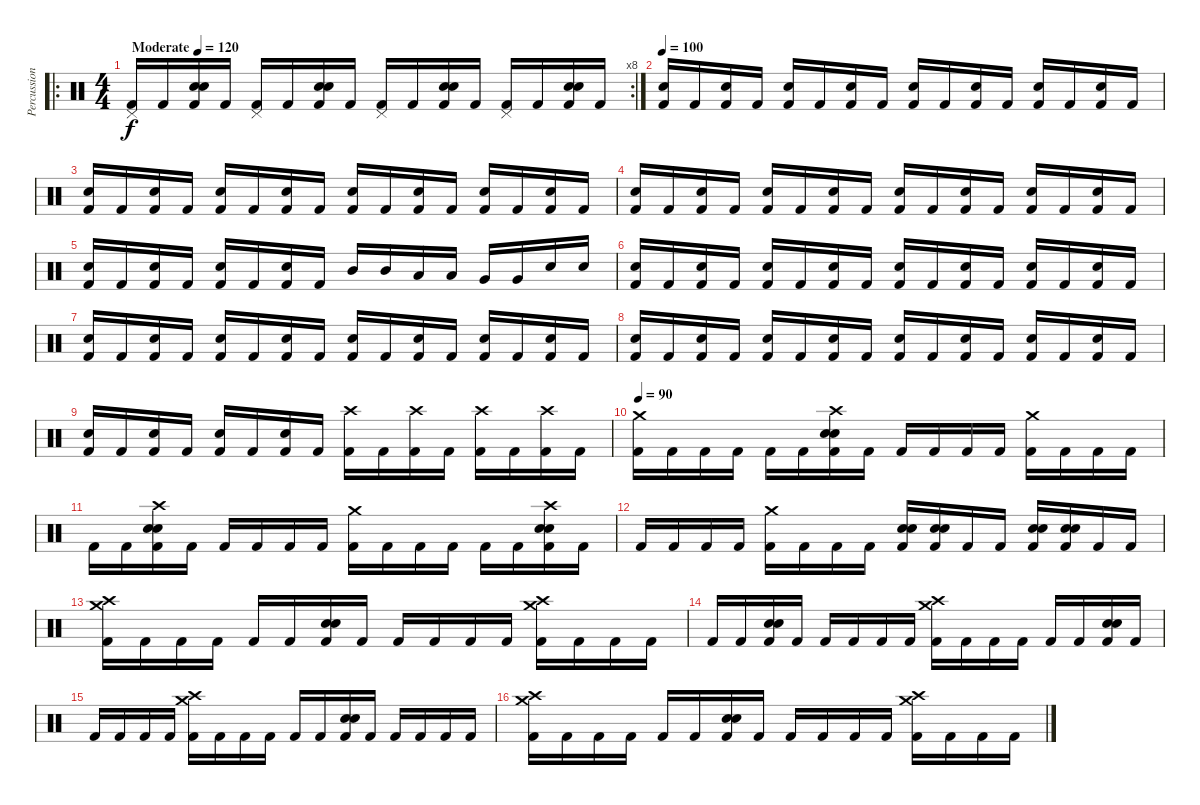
\track ("Percussions" "Percussion") {instrument percussion}
\staff {score}
\articulation defaults
\ro
\rc 8
\ts (4 4)
\tempo (120 "Moderate")
\tempo 90
\tempo (120 "Moderate")
\clef neutral
\ks c
("Pedal Hi-Hat (hit)" "Kick (hit) 2").16{dy f} "Kick (hit) 2".16 ("Electric Snare (hit)" "Snare (hit) 2" "Kick (hit) 2").16 "Kick (hit) 2".16 ("Pedal Hi-Hat (hit)" "Kick (hit) 2").16 "Kick (hit) 2".16 ("Electric Snare (hit)" "Snare (hit) 2" "Kick (hit) 2").16 "Kick (hit) 2".16 ("Pedal Hi-Hat (hit)" "Kick (hit) 2").16 "Kick (hit) 2".16 ("Electric Snare (hit)" "Snare (hit) 2" "Kick (hit) 2").16 "Kick (hit) 2".16 ("Pedal Hi-Hat (hit)" "Kick (hit) 2").16 "Kick (hit) 2".16 ("Electric Snare (hit)" "Snare (hit) 2" "Kick (hit) 2").16 "Kick (hit) 2".16 |
\tempo 100
("Electric Snare (hit)" "Kick (hit) 2").16 "Kick (hit) 2".16 ("Snare (hit) 2" "Kick (hit) 2").16 "Kick (hit) 2".16 ("Electric Snare (hit)" "Kick (hit) 2").16 "Kick (hit) 2".16 ("Snare (hit) 2" "Kick (hit) 2").16 "Kick (hit) 2".16 ("Electric Snare (hit)" "Kick (hit) 2").16 "Kick (hit) 2".16 ("Snare (hit) 2" "Kick (hit) 2").16 "Kick (hit) 2".16 ("Electric Snare (hit)" "Kick (hit) 2").16 "Kick (hit) 2".16 ("Snare (hit) 2" "Kick (hit) 2").16 "Kick (hit) 2".16 |
("Electric Snare (hit)" "Kick (hit) 2").16 "Kick (hit) 2".16 ("Snare (hit) 2" "Kick (hit) 2").16 "Kick (hit) 2".16 ("Electric Snare (hit)" "Kick (hit) 2").16 "Kick (hit) 2".16 ("Snare (hit) 2" "Kick (hit) 2").16 "Kick (hit) 2".16 ("Electric Snare (hit)" "Kick (hit) 2").16 "Kick (hit) 2".16 ("Snare (hit) 2" "Kick (hit) 2").16 "Kick (hit) 2".16 ("Electric Snare (hit)" "Kick (hit) 2").16 "Kick (hit) 2".16 ("Snare (hit) 2" "Kick (hit) 2").16 "Kick (hit) 2".16 |
("Electric Snare (hit)" "Kick (hit) 2").16 "Kick (hit) 2".16 ("Snare (hit) 2" "Kick (hit) 2").16 "Kick (hit) 2".16 ("Electric Snare (hit)" "Kick (hit) 2").16 "Kick (hit) 2".16 ("Snare (hit) 2" "Kick (hit) 2").16 "Kick (hit) 2".16 ("Electric Snare (hit)" "Kick (hit) 2").16 "Kick (hit) 2".16 ("Snare (hit) 2" "Kick (hit) 2").16 "Kick (hit) 2".16 ("Electric Snare (hit)" "Kick (hit) 2").16 "Kick (hit) 2".16 ("Snare (hit) 2" "Kick (hit) 2").16 "Kick (hit) 2".16 |
("Electric Snare (hit)" "Kick (hit) 2").16 "Kick (hit) 2".16 ("Snare (hit) 2" "Kick (hit) 2").16 "Kick (hit) 2".16 ("Electric Snare (hit)" "Kick (hit) 2").16 "Kick (hit) 2".16 ("Snare (hit) 2" "Kick (hit) 2").16 "Kick (hit) 2".16 "Mid Tom (hit)".16 "Mid Tom (hit)".16 "Low Tom (hit)".16 "Low Tom (hit)".16 "Very Low Tom (hit)".16 "Very Low Tom (hit)".16 "Snare (hit) 2".16 "Electric Snare (hit)".16 |
("Electric Snare (hit)" "Kick (hit) 2").16 "Kick (hit) 2".16 ("Snare (hit) 2" "Kick (hit) 2").16 "Kick (hit) 2".16 ("Electric Snare (hit)" "Kick (hit) 2").16 "Kick (hit) 2".16 ("Snare (hit) 2" "Kick (hit) 2").16 "Kick (hit) 2".16 ("Electric Snare (hit)" "Kick (hit) 2").16 "Kick (hit) 2".16 ("Snare (hit) 2" "Kick (hit) 2").16 "Kick (hit) 2".16 ("Electric Snare (hit)" "Kick (hit) 2").16 "Kick (hit) 2".16 ("Snare (hit) 2" "Kick (hit) 2").16 "Kick (hit) 2".16 |
("Electric Snare (hit)" "Kick (hit) 2").16 "Kick (hit) 2".16 ("Snare (hit) 2" "Kick (hit) 2").16 "Kick (hit) 2".16 ("Electric Snare (hit)" "Kick (hit) 2").16 "Kick (hit) 2".16 ("Snare (hit) 2" "Kick (hit) 2").16 "Kick (hit) 2".16 ("Electric Snare (hit)" "Kick (hit) 2").16 "Kick (hit) 2".16 ("Snare (hit) 2" "Kick (hit) 2").16 "Kick (hit) 2".16 ("Electric Snare (hit)" "Kick (hit) 2").16 "Kick (hit) 2".16 ("Snare (hit) 2" "Kick (hit) 2").16 "Kick (hit) 2".16 |
("Electric Snare (hit)" "Kick (hit) 2").16 "Kick (hit) 2".16 ("Snare (hit) 2" "Kick (hit) 2").16 "Kick (hit) 2".16 ("Electric Snare (hit)" "Kick (hit) 2").16 "Kick (hit) 2".16 ("Snare (hit) 2" "Kick (hit) 2").16 "Kick (hit) 2".16 ("Electric Snare (hit)" "Kick (hit) 2").16 "Kick (hit) 2".16 ("Snare (hit) 2" "Kick (hit) 2").16 "Kick (hit) 2".16 ("Electric Snare (hit)" "Kick (hit) 2").16 "Kick (hit) 2".16 ("Snare (hit) 2" "Kick (hit) 2").16 "Kick (hit) 2".16 |
("Electric Snare (hit)" "Kick (hit) 2").16 "Kick (hit) 2".16 ("Snare (hit) 2" "Kick (hit) 2").16 "Kick (hit) 2".16 ("Electric Snare (hit)" "Kick (hit) 2").16 "Kick (hit) 2".16 ("Snare (hit) 2" "Kick (hit) 2").16 "Kick (hit) 2".16 ("Crash high (hit)" "Kick (hit) 2").16 "Kick (hit) 2".16 ("Crash high (hit)" "Kick (hit) 2").16 "Kick (hit) 2".16 ("Crash high (hit)" "Kick (hit) 2").16 "Kick (hit) 2".16 ("Crash high (hit)" "Kick (hit) 2").16 "Kick (hit) 2".16 |
\tempo 90
("Crash medium (hit)" "Kick (hit) 2").16 "Kick (hit) 2".16 "Kick (hit) 2".16 "Kick (hit) 2".16 "Kick (hit) 2".16 "Kick (hit) 2".16 ("Crash high (hit)" "Electric Snare (hit)" "Snare (hit) 2" "Kick (hit) 2").16 "Kick (hit) 2".16 "Kick (hit) 2".16 "Kick (hit) 2".16 "Kick (hit) 2".16 "Kick (hit) 2".16 ("Crash medium (hit)" "Kick (hit) 2").16 "Kick (hit) 2".16 "Kick (hit) 2".16 "Kick (hit) 2".16 |
"Kick (hit) 2".16 "Kick (hit) 2".16 ("Crash high (hit)" "Electric Snare (hit)" "Snare (hit) 2" "Kick (hit) 2").16 "Kick (hit) 2".16 "Kick (hit) 2".16 "Kick (hit) 2".16 "Kick (hit) 2".16 "Kick (hit) 2".16 ("Crash medium (hit)" "Kick (hit) 2").16 "Kick (hit) 2".16 "Kick (hit) 2".16 "Kick (hit) 2".16 "Kick (hit) 2".16 "Kick (hit) 2".16 ("Crash high (hit)" "Electric Snare (hit)" "Snare (hit) 2" "Kick (hit) 2").16 "Kick (hit) 2".16 |
"Kick (hit) 2".16 "Kick (hit) 2".16 "Kick (hit) 2".16 "Kick (hit) 2".16 ("Crash medium (hit)" "Kick (hit) 2").16 "Kick (hit) 2".16 "Kick (hit) 2".16 "Kick (hit) 2".16 ("Electric Snare (hit)" "Snare (hit) 2" "Kick (hit) 2").16 ("Electric Snare (hit)" "Snare (hit) 2" "Kick (hit) 2").16 "Kick (hit) 2".16 "Kick (hit) 2".16 ("Electric Snare (hit)" "Snare (hit) 2" "Kick (hit) 2").16 ("Electric Snare (hit)" "Snare (hit) 2" "Kick (hit) 2").16 "Kick (hit) 2".16 "Kick (hit) 2".16 |
("Crash medium (hit)" "Crash high (hit)" "Kick (hit) 2").16 "Kick (hit) 2".16 "Kick (hit) 2".16 "Kick (hit) 2".16 "Kick (hit) 2".16 "Kick (hit) 2".16 ("Electric Snare (hit)" "Snare (hit) 2" "Kick (hit) 2").16 "Kick (hit) 2".16 "Kick (hit) 2".16 "Kick (hit) 2".16 "Kick (hit) 2".16 "Kick (hit) 2".16 ("Crash medium (hit)" "Crash high (hit)" "Kick (hit) 2").16 "Kick (hit) 2".16 "Kick (hit) 2".16 "Kick (hit) 2".16 |
"Kick (hit) 2".16 "Kick (hit) 2".16 ("Electric Snare (hit)" "Snare (hit) 2" "Kick (hit) 2").16 "Kick (hit) 2".16 "Kick (hit) 2".16 "Kick (hit) 2".16 "Kick (hit) 2".16 "Kick (hit) 2".16 ("Crash medium (hit)" "Crash high (hit)" "Kick (hit) 2").16 "Kick (hit) 2".16 "Kick (hit) 2".16 "Kick (hit) 2".16 "Kick (hit) 2".16 "Kick (hit) 2".16 ("Electric Snare (hit)" "Snare (hit) 2" "Kick (hit) 2").16 "Kick (hit) 2".16 |
"Kick (hit) 2".16 "Kick (hit) 2".16 "Kick (hit) 2".16 "Kick (hit) 2".16 ("Crash medium (hit)" "Crash high (hit)" "Kick (hit) 2").16 "Kick (hit) 2".16 "Kick (hit) 2".16 "Kick (hit) 2".16 "Kick (hit) 2".16 "Kick (hit) 2".16 ("Electric Snare (hit)" "Snare (hit) 2" "Kick (hit) 2").16 "Kick (hit) 2".16 "Kick (hit) 2".16 "Kick (hit) 2".16 "Kick (hit) 2".16 "Kick (hit) 2".16 |
("Crash medium (hit)" "Crash high (hit)" "Kick (hit) 2").16 "Kick (hit) 2".16 "Kick (hit) 2".16 "Kick (hit) 2".16 "Kick (hit) 2".16 "Kick (hit) 2".16 ("Electric Snare (hit)" "Snare (hit) 2" "Kick (hit) 2").16 "Kick (hit) 2".16 "Kick (hit) 2".16 "Kick (hit) 2".16 "Kick (hit) 2".16 "Kick (hit) 2".16 ("Crash medium (hit)" "Crash high (hit)" "Kick (hit) 2").16 "Kick (hit) 2".16 "Kick (hit) 2".16 "Kick (hit) 2".16
